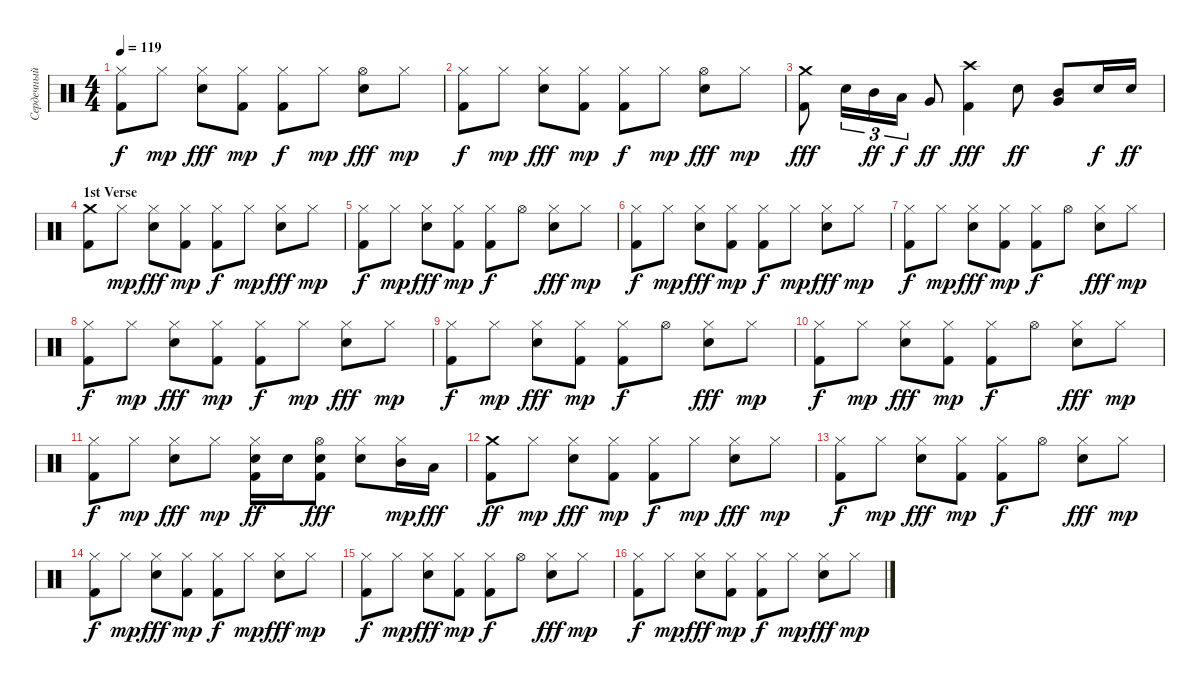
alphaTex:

\track ("Сердечный (Ударные)" "Сердечный ") {instrument percussion}
\staff {score}
\articulation defaults
\ts (4 4)
\tempo 119
\clef neutral
\ks c
("Kick (hit) 2" "Hi-Hat (closed)").8{dy f} "Hi-Hat (closed)".8{dy mp} ("Hi-Hat (closed)" "Electric Snare (hit)").8{dy fff} ("Hi-Hat (closed)" "Kick (hit) 2").8{dy mp} ("Hi-Hat (closed)" "Kick (hit) 2").8{dy f} "Hi-Hat (closed)".8{dy mp} ("Hi-Hat (open)" "Electric Snare (hit)").8{dy fff} "Hi-Hat (closed)".8{dy mp} |
("Kick (hit) 2" "Hi-Hat (closed)").8{dy f} "Hi-Hat (closed)".8{dy mp} ("Hi-Hat (closed)" "Electric Snare (hit)").8{dy fff} ("Hi-Hat (closed)" "Kick (hit) 2").8{dy mp} ("Hi-Hat (closed)" "Kick (hit) 2").8{dy f} "Hi-Hat (closed)".8{dy mp} ("Hi-Hat (open)" "Electric Snare (hit)").8{dy fff} "Hi-Hat (closed)".8{dy mp} |
("Crash medium (hit)" "Kick (hit) 2").8{dy fff} "Electric Snare (hit)".16{tu (3 2)} "Mid Tom (hit)".16{tu (3 2) dy ff} "Low Tom (hit)".16{tu (3 2) dy f} "Very Low Tom (hit)".8{dy ff} ("Crash high (hit)" "Kick (hit) 2").4{dy fff} "Electric Snare (hit)".8{dy ff} ("Mid Tom (hit)" "Very Low Tom (hit)").8 "Electric Snare (hit)".16{dy f} "Electric Snare (hit)".16{dy ff} |
\section ("" "1st Verse")
("Kick (hit) 2" "Crash medium (hit)").8 "Hi-Hat (closed)".8{dy mp} ("Hi-Hat (closed)" "Electric Snare (hit)").8{dy fff} ("Hi-Hat (closed)" "Kick (hit) 2").8{dy mp} ("Hi-Hat (closed)" "Kick (hit) 2").8{dy f} "Hi-Hat (closed)".8{dy mp} ("Hi-Hat (closed)" "Electric Snare (hit)").8{dy fff} "Hi-Hat (closed)".8{dy mp} |
("Kick (hit) 2" "Hi-Hat (closed)").8{dy f} "Hi-Hat (closed)".8{dy mp} ("Hi-Hat (closed)" "Electric Snare (hit)").8{dy fff} ("Hi-Hat (closed)" "Kick (hit) 2").8{dy mp} ("Hi-Hat (closed)" "Kick (hit) 2").8{dy f} "Hi-Hat (open)".8 ("Hi-Hat (closed)" "Electric Snare (hit)").8{dy fff} "Hi-Hat (closed)".8{dy mp} |
("Kick (hit) 2" "Hi-Hat (closed)").8{dy f} "Hi-Hat (closed)".8{dy mp} ("Hi-Hat (closed)" "Electric Snare (hit)").8{dy fff} ("Hi-Hat (closed)" "Kick (hit) 2").8{dy mp} ("Hi-Hat (closed)" "Kick (hit) 2").8{dy f} "Hi-Hat (closed)".8{dy mp} ("Hi-Hat (closed)" "Electric Snare (hit)").8{dy fff} "Hi-Hat (closed)".8{dy mp} |
("Kick (hit) 2" "Hi-Hat (closed)").8{dy f} "Hi-Hat (closed)".8{dy mp} ("Hi-Hat (closed)" "Electric Snare (hit)").8{dy fff} ("Hi-Hat (closed)" "Kick (hit) 2").8{dy mp} ("Hi-Hat (closed)" "Kick (hit) 2").8{dy f} "Hi-Hat (open)".8 ("Hi-Hat (closed)" "Electric Snare (hit)").8{dy fff} "Hi-Hat (closed)".8{dy mp} |
("Kick (hit) 2" "Hi-Hat (closed)").8{dy f} "Hi-Hat (closed)".8{dy mp} ("Hi-Hat (closed)" "Electric Snare (hit)").8{dy fff} ("Hi-Hat (closed)" "Kick (hit) 2").8{dy mp} ("Hi-Hat (closed)" "Kick (hit) 2").8{dy f} "Hi-Hat (closed)".8{dy mp} ("Hi-Hat (closed)" "Electric Snare (hit)").8{dy fff} "Hi-Hat (closed)".8{dy mp} |
("Kick (hit) 2" "Hi-Hat (closed)").8{dy f} "Hi-Hat (closed)".8{dy mp} ("Hi-Hat (closed)" "Electric Snare (hit)").8{dy fff} ("Hi-Hat (closed)" "Kick (hit) 2").8{dy mp} ("Hi-Hat (closed)" "Kick (hit) 2").8{dy f} "Hi-Hat (open)".8 ("Hi-Hat (closed)" "Electric Snare (hit)").8{dy fff} "Hi-Hat (closed)".8{dy mp} |
("Kick (hit) 2" "Hi-Hat (closed)").8{dy f} "Hi-Hat (closed)".8{dy mp} ("Hi-Hat (closed)" "Electric Snare (hit)").8{dy fff} ("Hi-Hat (closed)" "Kick (hit) 2").8{dy mp} ("Hi-Hat (closed)" "Kick (hit) 2").8{dy f} "Hi-Hat (open)".8 ("Hi-Hat (closed)" "Electric Snare (hit)").8{dy fff} "Hi-Hat (closed)".8{dy mp} |
("Kick (hit) 2" "Hi-Hat (closed)").8{dy f} "Hi-Hat (closed)".8{dy mp} ("Hi-Hat (closed)" "Electric Snare (hit)").8{dy fff} "Hi-Hat (closed)".8{dy mp} ("Electric Snare (hit)" "Hi-Hat (closed)" "Kick (hit) 2").16{dy ff} "Electric Snare (hit)".16 ("Electric Snare (hit)" "Hi-Hat (open)" "Kick (hit) 2").8{dy fff} ("Hi-Hat (closed)" "Electric Snare (hit)").8 ("Mid Tom (hit)" "Hi-Hat (closed)").16{dy mp} "Low Tom (hit)".16{dy fff} |
("Kick (hit) 2" "Crash medium (hit)").8{dy ff} "Hi-Hat (closed)".8{dy mp} ("Hi-Hat (closed)" "Electric Snare (hit)").8{dy fff} ("Hi-Hat (closed)" "Kick (hit) 2").8{dy mp} ("Hi-Hat (closed)" "Kick (hit) 2").8{dy f} "Hi-Hat (closed)".8{dy mp} ("Hi-Hat (closed)" "Electric Snare (hit)").8{dy fff} "Hi-Hat (closed)".8{dy mp} |
("Kick (hit) 2" "Hi-Hat (closed)").8{dy f} "Hi-Hat (closed)".8{dy mp} ("Hi-Hat (closed)" "Electric Snare (hit)").8{dy fff} ("Hi-Hat (closed)" "Kick (hit) 2").8{dy mp} ("Hi-Hat (closed)" "Kick (hit) 2").8{dy f} "Hi-Hat (open)".8 ("Hi-Hat (closed)" "Electric Snare (hit)").8{dy fff} "Hi-Hat (closed)".8{dy mp} |
("Kick (hit) 2" "Hi-Hat (closed)").8{dy f} "Hi-Hat (closed)".8{dy mp} ("Hi-Hat (closed)" "Electric Snare (hit)").8{dy fff} ("Hi-Hat (closed)" "Kick (hit) 2").8{dy mp} ("Hi-Hat (closed)" "Kick (hit) 2").8{dy f} "Hi-Hat (closed)".8{dy mp} ("Hi-Hat (closed)" "Electric Snare (hit)").8{dy fff} "Hi-Hat (closed)".8{dy mp} |
("Kick (hit) 2" "Hi-Hat (closed)").8{dy f} "Hi-Hat (closed)".8{dy mp} ("Hi-Hat (closed)" "Electric Snare (hit)").8{dy fff} ("Hi-Hat (closed)" "Kick (hit) 2").8{dy mp} ("Hi-Hat (closed)" "Kick (hit) 2").8{dy f} "Hi-Hat (open)".8 ("Hi-Hat (closed)" "Electric Snare (hit)").8{dy fff} "Hi-Hat (closed)".8{dy mp} |
("Kick (hit) 2" "Hi-Hat (closed)").8{dy f} "Hi-Hat (closed)".8{dy mp} ("Hi-Hat (closed)" "Electric Snare (hit)").8{dy fff} ("Hi-Hat (closed)" "Kick (hit) 2").8{dy mp} ("Hi-Hat (closed)" "Kick (hit) 2").8{dy f} "Hi-Hat (closed)".8{dy mp} ("Hi-Hat (closed)" "Electric Snare (hit)").8{dy fff} "Hi-Hat (closed)".8{dy mp}
